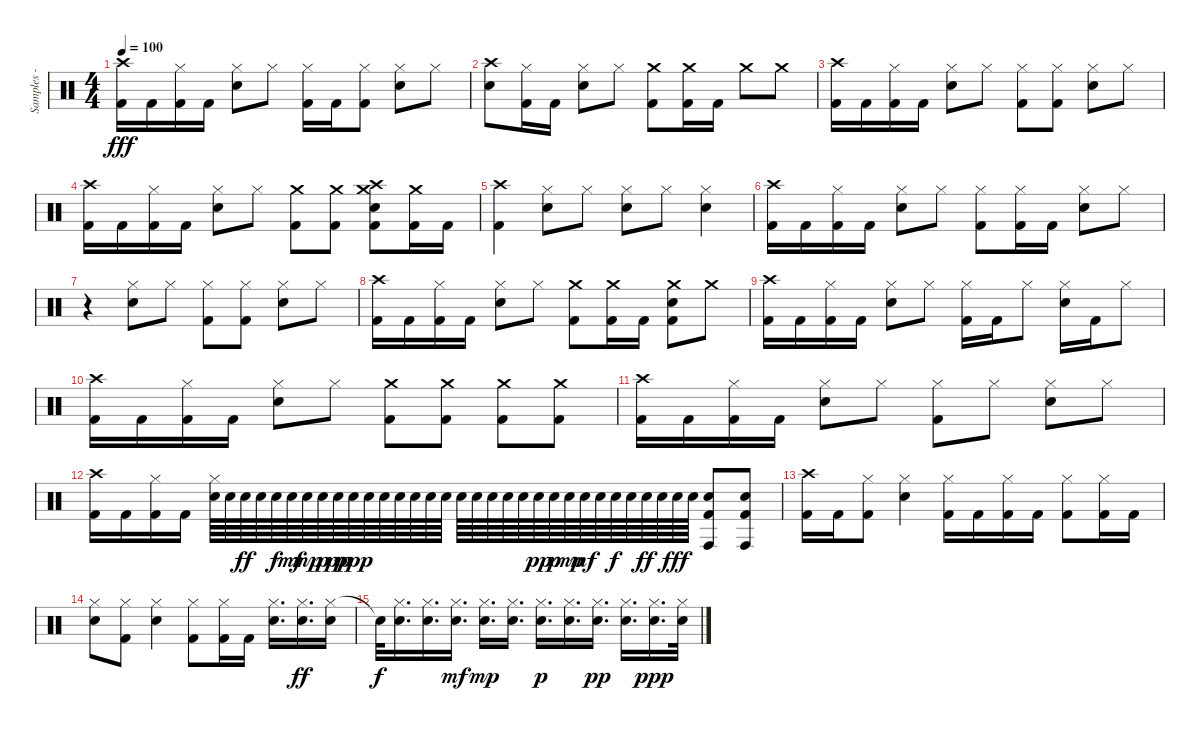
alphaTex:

\track ("Samples - Joe Hahn" "Samples - ") {instrument percussion}
\staff {score}
\articulation defaults
\ts (4 4)
\tempo 100
\clef neutral
\ks c
("Crash high (hit)" "Kick (hit) 2").16{dy fff} "Kick (hit) 2".16 ("Hi-Hat (closed)" "Kick (hit) 2").16 "Kick (hit) 2".16 ("Hi-Hat (closed)" "Electric Snare (hit)").8 "Hi-Hat (closed)".8 ("Hi-Hat (closed)" "Kick (hit) 2").16 "Kick (hit) 2".16 ("Hi-Hat (closed)" "Kick (hit) 2").8 ("Hi-Hat (closed)" "Electric Snare (hit)").8 "Hi-Hat (closed)".8 |
("Crash high (hit)" "Electric Snare (hit)").8 ("Hi-Hat (closed)" "Kick (hit) 2").16 "Kick (hit) 2".16 ("Hi-Hat (closed)" "Electric Snare (hit)").8 "Hi-Hat (closed)".8 ("Crash medium (hit)" "Kick (hit) 2").8 ("Crash medium (hit)" "Kick (hit) 2").16 "Kick (hit) 2".16 "Crash medium (hit)".8 "Crash medium (hit)".8 |
("Crash high (hit)" "Kick (hit) 2").16 "Kick (hit) 2".16 ("Hi-Hat (closed)" "Kick (hit) 2").16 "Kick (hit) 2".16 ("Hi-Hat (closed)" "Electric Snare (hit)").8 "Hi-Hat (closed)".8 ("Hi-Hat (closed)" "Kick (hit) 2").8 ("Hi-Hat (closed)" "Kick (hit) 2").8 ("Hi-Hat (closed)" "Electric Snare (hit)").8 "Hi-Hat (closed)".8 |
("Crash high (hit)" "Kick (hit) 2").16 "Kick (hit) 2".16 ("Hi-Hat (closed)" "Kick (hit) 2").16 "Kick (hit) 2".16 ("Hi-Hat (closed)" "Electric Snare (hit)").8 "Hi-Hat (closed)".8 ("Crash medium (hit)" "Kick (hit) 2").8 ("Crash medium (hit)" "Kick (hit) 2").8 ("Crash medium (hit)" "Crash high (hit)" "Electric Snare (hit)" "Kick (hit) 2").8 ("Crash medium (hit)" "Kick (hit) 2").16 "Kick (hit) 2".16 |
("Crash high (hit)" "Kick (hit) 2").4 ("Hi-Hat (closed)" "Electric Snare (hit)").8 "Hi-Hat (closed)".8 ("Hi-Hat (closed)" "Electric Snare (hit)").8 "Hi-Hat (closed)".8 ("Hi-Hat (closed)" "Electric Snare (hit)").4 |
("Crash high (hit)" "Kick (hit) 2").16 "Kick (hit) 2".16 ("Hi-Hat (closed)" "Kick (hit) 2").16 "Kick (hit) 2".16 ("Hi-Hat (closed)" "Electric Snare (hit)").8 "Hi-Hat (closed)".8 ("Hi-Hat (closed)" "Kick (hit) 2").8 ("Hi-Hat (closed)" "Kick (hit) 2").16 "Kick (hit) 2".16 ("Hi-Hat (closed)" "Electric Snare (hit)").8 "Hi-Hat (closed)".8 |
r.4 ("Hi-Hat (closed)" "Electric Snare (hit)").8 "Hi-Hat (closed)".8 ("Hi-Hat (closed)" "Kick (hit) 2").8 ("Hi-Hat (closed)" "Kick (hit) 2").8 ("Hi-Hat (closed)" "Electric Snare (hit)").8 "Hi-Hat (closed)".8 |
("Crash high (hit)" "Kick (hit) 2").16 "Kick (hit) 2".16 ("Hi-Hat (closed)" "Kick (hit) 2").16 "Kick (hit) 2".16 ("Hi-Hat (closed)" "Electric Snare (hit)").8 "Hi-Hat (closed)".8 ("Crash medium (hit)" "Kick (hit) 2").8 ("Crash medium (hit)" "Kick (hit) 2").16 "Kick (hit) 2".16 ("Crash medium (hit)" "Electric Snare (hit)" "Kick (hit) 2").8 "Crash medium (hit)".8 |
("Crash high (hit)" "Kick (hit) 2").16 "Kick (hit) 2".16 ("Hi-Hat (closed)" "Kick (hit) 2").16 "Kick (hit) 2".16 ("Hi-Hat (closed)" "Electric Snare (hit)").8 "Hi-Hat (closed)".8 ("Hi-Hat (closed)" "Kick (hit) 2").16 "Kick (hit) 2".16 "Hi-Hat (closed)".8 ("Hi-Hat (closed)" "Electric Snare (hit)").16 "Kick (hit) 2".16 "Hi-Hat (closed)".8 |
("Crash high (hit)" "Kick (hit) 2").16 "Kick (hit) 2".16 ("Hi-Hat (closed)" "Kick (hit) 2").16 "Kick (hit) 2".16 ("Hi-Hat (closed)" "Electric Snare (hit)").8 "Hi-Hat (closed)".8 ("Crash medium (hit)" "Kick (hit) 2").8 ("Crash medium (hit)" "Kick (hit) 2").8 ("Crash medium (hit)" "Kick (hit) 2").8 ("Crash medium (hit)" "Kick (hit) 2").8 |
("Crash high (hit)" "Kick (hit) 2").16 "Kick (hit) 2".16 ("Hi-Hat (closed)" "Kick (hit) 2").16 "Kick (hit) 2".16 ("Hi-Hat (closed)" "Electric Snare (hit)").8 "Hi-Hat (closed)".8 ("Hi-Hat (closed)" "Kick (hit) 2").8 "Hi-Hat (closed)".8 ("Hi-Hat (closed)" "Electric Snare (hit)").8 "Hi-Hat (closed)".8 |
("Crash high (hit)" "Kick (hit) 2").16 "Kick (hit) 2".16 ("Hi-Hat (closed)" "Kick (hit) 2").16 "Kick (hit) 2".16 ("Hi-Hat (closed)" "Electric Snare (hit)").64 "Electric Snare (hit)".64 "Electric Snare (hit)".64{dy ff} "Electric Snare (hit)".64 "Electric Snare (hit)".64{dy f} "Electric Snare (hit)".64{dy mf} "Electric Snare (hit)".64{dy mp} "Electric Snare (hit)".64{dy p} "Electric Snare (hit)".64{dy pp} "Electric Snare (hit)".64{dy ppp} "Electric Snare (hit)".64 "Electric Snare (hit)".64 "Electric Snare (hit)".64 "Electric Snare (hit)".64 "Electric Snare (hit)".64 "Electric Snare (hit)".64 "Electric Snare (hit)".64 "Electric Snare (hit)".64 "Electric Snare (hit)".64 "Electric Snare (hit)".64 "Electric Snare (hit)".64 "Electric Snare (hit)".64{dy pp} "Electric Snare (hit)".64{dy p} "Electric Snare (hit)".64{dy mp} "Electric Snare (hit)".64{dy mf} "Electric Snare (hit)".64 "Electric Snare (hit)".64{dy f} "Electric Snare (hit)".64 "Electric Snare (hit)".64{dy ff} "Electric Snare (hit)".64 "Electric Snare (hit)".64{dy fff} "Electric Snare (hit)".64 ("Conga high (hit)" "Electric Snare (hit)" "Kick (hit) 2").8 ("Conga high (hit)" "Electric Snare (hit)" "Kick (hit) 2").8 |
("Crash high (hit)" "Kick (hit) 2").16 "Kick (hit) 2".16 ("Hi-Hat (closed)" "Kick (hit) 2").8 ("Hi-Hat (closed)" "Electric Snare (hit)").4 ("Hi-Hat (closed)" "Kick (hit) 2").16 "Kick (hit) 2".16 ("Hi-Hat (closed)" "Kick (hit) 2").16 "Kick (hit) 2".16 ("Hi-Hat (closed)" "Kick (hit) 2").8 ("Hi-Hat (closed)" "Kick (hit) 2").16 "Kick (hit) 2".16 |
("Hi-Hat (closed)" "Electric Snare (hit)").8 ("Hi-Hat (closed)" "Kick (hit) 2").8 ("Hi-Hat (closed)" "Electric Snare (hit)").4 ("Hi-Hat (closed)" "Kick (hit) 2").8 ("Hi-Hat (closed)" "Kick (hit) 2").16 "Kick (hit) 2".16 ("Hi-Hat (closed)" "Electric Snare (hit)").16{d} ("Hi-Hat (closed)" "Electric Snare (hit)").16{d dy ff} ("Hi-Hat (closed)" "Electric Snare (hit)").16 |
"Electric Snare (hit)"{t}.32{dy f} ("Hi-Hat (closed)" "Electric Snare (hit)").16{d} ("Hi-Hat (closed)" "Electric Snare (hit)").16{d} ("Hi-Hat (closed)" "Electric Snare (hit)").16{d dy mf} ("Hi-Hat (closed)" "Electric Snare (hit)").16{d dy mp} ("Hi-Hat (closed)" "Electric Snare (hit)").16{d} ("Hi-Hat (closed)" "Electric Snare (hit)").16{d dy p} ("Hi-Hat (closed)" "Electric Snare (hit)").16{d} ("Hi-Hat (closed)" "Electric Snare (hit)").16{d dy pp} ("Hi-Hat (closed)" "Electric Snare (hit)").16{d} ("Hi-Hat (closed)" "Electric Snare (hit)").16{d dy ppp} ("Hi-Hat (closed)" "Electric Snare (hit)").32
